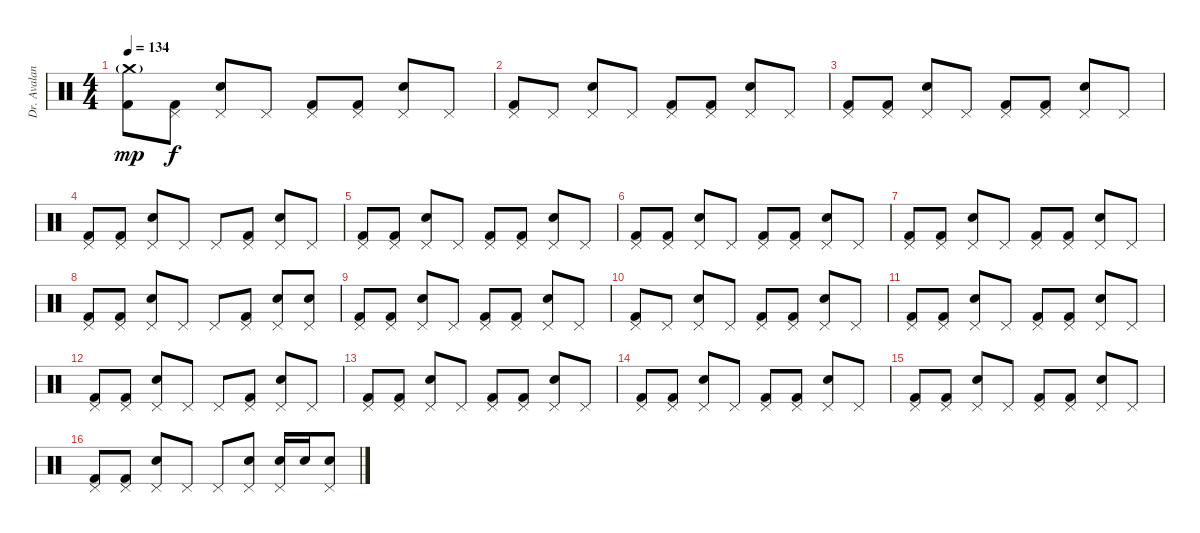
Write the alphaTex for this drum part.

\track ("Dr. Avalanche" "Dr. Avalan") {instrument percussion}
\staff {score}
\articulation defaults
\ts (4 4)
\tempo 134
\clef neutral
\ks c
("Crash medium (hit)"{g} "Kick (hit) 2").8{dy mp} ("Pedal Hi-Hat (hit)" "Kick (hit) 2").8{dy f} ("Pedal Hi-Hat (hit)" "Electric Snare (hit)").8 "Pedal Hi-Hat (hit)".8 ("Pedal Hi-Hat (hit)" "Kick (hit) 2").8 ("Pedal Hi-Hat (hit)" "Kick (hit) 2").8 ("Pedal Hi-Hat (hit)" "Electric Snare (hit)").8 "Pedal Hi-Hat (hit)".8 |
("Pedal Hi-Hat (hit)" "Kick (hit) 2").8 "Pedal Hi-Hat (hit)".8 ("Pedal Hi-Hat (hit)" "Electric Snare (hit)").8 "Pedal Hi-Hat (hit)".8 ("Pedal Hi-Hat (hit)" "Kick (hit) 2").8 ("Pedal Hi-Hat (hit)" "Kick (hit) 2").8 ("Pedal Hi-Hat (hit)" "Electric Snare (hit)").8 "Pedal Hi-Hat (hit)".8 |
("Pedal Hi-Hat (hit)" "Kick (hit) 2").8 ("Pedal Hi-Hat (hit)" "Kick (hit) 2").8 ("Pedal Hi-Hat (hit)" "Electric Snare (hit)").8 "Pedal Hi-Hat (hit)".8 ("Pedal Hi-Hat (hit)" "Kick (hit) 2").8 ("Pedal Hi-Hat (hit)" "Kick (hit) 2").8 ("Pedal Hi-Hat (hit)" "Electric Snare (hit)").8 "Pedal Hi-Hat (hit)".8 |
("Pedal Hi-Hat (hit)" "Kick (hit) 2").8 ("Pedal Hi-Hat (hit)" "Kick (hit) 2").8 ("Pedal Hi-Hat (hit)" "Electric Snare (hit)").8 "Pedal Hi-Hat (hit)".8 "Pedal Hi-Hat (hit)".8 ("Pedal Hi-Hat (hit)" "Kick (hit) 2").8 ("Pedal Hi-Hat (hit)" "Electric Snare (hit)").8 "Pedal Hi-Hat (hit)".8 |
("Pedal Hi-Hat (hit)" "Kick (hit) 2").8 ("Pedal Hi-Hat (hit)" "Kick (hit) 2").8 ("Pedal Hi-Hat (hit)" "Electric Snare (hit)").8 "Pedal Hi-Hat (hit)".8 ("Pedal Hi-Hat (hit)" "Kick (hit) 2").8 ("Pedal Hi-Hat (hit)" "Kick (hit) 2").8 ("Pedal Hi-Hat (hit)" "Electric Snare (hit)").8 "Pedal Hi-Hat (hit)".8 |
("Pedal Hi-Hat (hit)" "Kick (hit) 2").8 ("Pedal Hi-Hat (hit)" "Kick (hit) 2").8 ("Pedal Hi-Hat (hit)" "Electric Snare (hit)").8 "Pedal Hi-Hat (hit)".8 ("Pedal Hi-Hat (hit)" "Kick (hit) 2").8 ("Pedal Hi-Hat (hit)" "Kick (hit) 2").8 ("Pedal Hi-Hat (hit)" "Electric Snare (hit)").8 "Pedal Hi-Hat (hit)".8 |
("Pedal Hi-Hat (hit)" "Kick (hit) 2").8 ("Pedal Hi-Hat (hit)" "Kick (hit) 2").8 ("Pedal Hi-Hat (hit)" "Electric Snare (hit)").8 "Pedal Hi-Hat (hit)".8 ("Pedal Hi-Hat (hit)" "Kick (hit) 2").8 ("Pedal Hi-Hat (hit)" "Kick (hit) 2").8 ("Pedal Hi-Hat (hit)" "Electric Snare (hit)").8 "Pedal Hi-Hat (hit)".8 |
("Pedal Hi-Hat (hit)" "Kick (hit) 2").8 ("Pedal Hi-Hat (hit)" "Kick (hit) 2").8 ("Pedal Hi-Hat (hit)" "Electric Snare (hit)").8 "Pedal Hi-Hat (hit)".8 "Pedal Hi-Hat (hit)".8 ("Pedal Hi-Hat (hit)" "Kick (hit) 2").8 ("Pedal Hi-Hat (hit)" "Electric Snare (hit)").8 ("Pedal Hi-Hat (hit)" "Electric Snare (hit)").8 |
("Pedal Hi-Hat (hit)" "Kick (hit) 2").8 ("Pedal Hi-Hat (hit)" "Kick (hit) 2").8 ("Pedal Hi-Hat (hit)" "Electric Snare (hit)").8 "Pedal Hi-Hat (hit)".8 ("Pedal Hi-Hat (hit)" "Kick (hit) 2").8 ("Pedal Hi-Hat (hit)" "Kick (hit) 2").8 ("Pedal Hi-Hat (hit)" "Electric Snare (hit)").8 "Pedal Hi-Hat (hit)".8 |
("Pedal Hi-Hat (hit)" "Kick (hit) 2").8 "Pedal Hi-Hat (hit)".8 ("Pedal Hi-Hat (hit)" "Electric Snare (hit)").8 "Pedal Hi-Hat (hit)".8 ("Pedal Hi-Hat (hit)" "Kick (hit) 2").8 ("Pedal Hi-Hat (hit)" "Kick (hit) 2").8 ("Pedal Hi-Hat (hit)" "Electric Snare (hit)").8 "Pedal Hi-Hat (hit)".8 |
("Pedal Hi-Hat (hit)" "Kick (hit) 2").8 ("Pedal Hi-Hat (hit)" "Kick (hit) 2").8 ("Pedal Hi-Hat (hit)" "Electric Snare (hit)").8 "Pedal Hi-Hat (hit)".8 ("Pedal Hi-Hat (hit)" "Kick (hit) 2").8 ("Pedal Hi-Hat (hit)" "Kick (hit) 2").8 ("Pedal Hi-Hat (hit)" "Electric Snare (hit)").8 "Pedal Hi-Hat (hit)".8 |
("Pedal Hi-Hat (hit)" "Kick (hit) 2").8 ("Pedal Hi-Hat (hit)" "Kick (hit) 2").8 ("Pedal Hi-Hat (hit)" "Electric Snare (hit)").8 "Pedal Hi-Hat (hit)".8 "Pedal Hi-Hat (hit)".8 ("Pedal Hi-Hat (hit)" "Kick (hit) 2").8 ("Pedal Hi-Hat (hit)" "Electric Snare (hit)").8 "Pedal Hi-Hat (hit)".8 |
("Pedal Hi-Hat (hit)" "Kick (hit) 2").8 ("Pedal Hi-Hat (hit)" "Kick (hit) 2").8 ("Pedal Hi-Hat (hit)" "Electric Snare (hit)").8 "Pedal Hi-Hat (hit)".8 ("Pedal Hi-Hat (hit)" "Kick (hit) 2").8 ("Pedal Hi-Hat (hit)" "Kick (hit) 2").8 ("Pedal Hi-Hat (hit)" "Electric Snare (hit)").8 "Pedal Hi-Hat (hit)".8 |
("Pedal Hi-Hat (hit)" "Kick (hit) 2").8 ("Pedal Hi-Hat (hit)" "Kick (hit) 2").8 ("Pedal Hi-Hat (hit)" "Electric Snare (hit)").8 "Pedal Hi-Hat (hit)".8 ("Pedal Hi-Hat (hit)" "Kick (hit) 2").8 ("Pedal Hi-Hat (hit)" "Kick (hit) 2").8 ("Pedal Hi-Hat (hit)" "Electric Snare (hit)").8 "Pedal Hi-Hat (hit)".8 |
("Pedal Hi-Hat (hit)" "Kick (hit) 2").8 ("Pedal Hi-Hat (hit)" "Kick (hit) 2").8 ("Pedal Hi-Hat (hit)" "Electric Snare (hit)").8 "Pedal Hi-Hat (hit)".8 ("Pedal Hi-Hat (hit)" "Kick (hit) 2").8 ("Pedal Hi-Hat (hit)" "Kick (hit) 2").8 ("Pedal Hi-Hat (hit)" "Electric Snare (hit)").8 "Pedal Hi-Hat (hit)".8 |
("Pedal Hi-Hat (hit)" "Kick (hit) 2").8 ("Pedal Hi-Hat (hit)" "Kick (hit) 2").8 ("Pedal Hi-Hat (hit)" "Electric Snare (hit)").8 "Pedal Hi-Hat (hit)".8 "Pedal Hi-Hat (hit)".8 ("Pedal Hi-Hat (hit)" "Electric Snare (hit)").8 ("Pedal Hi-Hat (hit)" "Electric Snare (hit)").16 "Electric Snare (hit)".16 ("Pedal Hi-Hat (hit)" "Electric Snare (hit)").8
